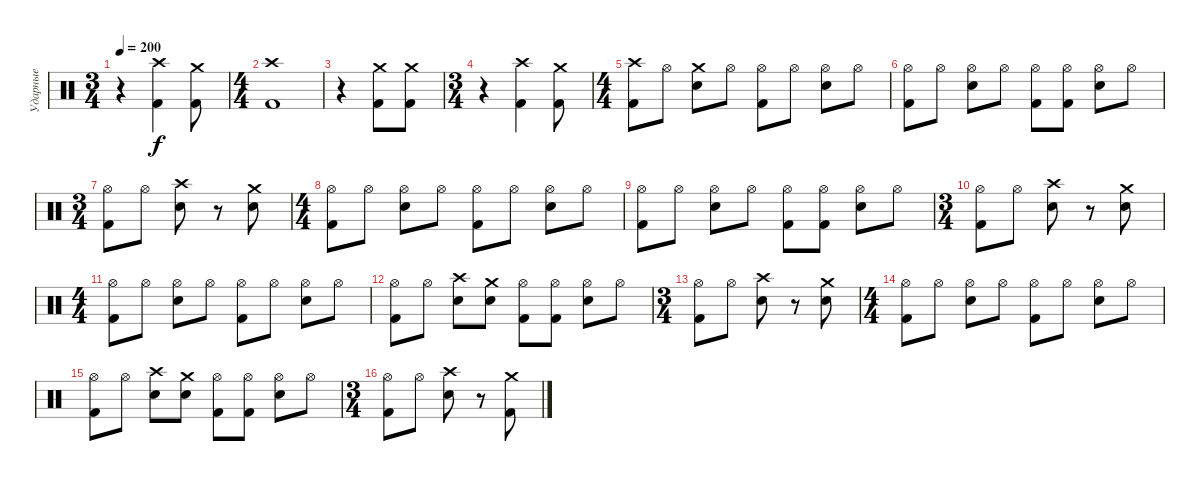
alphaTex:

\track ("Ударные" "Ударные") {instrument percussion}
\staff {score}
\articulation defaults
\ts (3 4)
\tempo 200
\clef neutral
\ks c
r.4{dy f} ("Crash high (hit)" "Kick (hit) 2").4 ("Crash medium (hit)" "Kick (hit) 2").8 |
\ts (4 4)
("Crash high (hit)" "Kick (hit) 2").1 |
r.4 ("Crash medium (hit)" "Kick (hit) 2").8 ("Crash medium (hit)" "Kick (hit) 2").8 |
\ts (3 4)
r.4 ("Crash high (hit)" "Kick (hit) 2").4 ("Crash medium (hit)" "Kick (hit) 2").8 |
\ts (4 4)
("Crash high (hit)" "Kick (hit) 2").8 "Hi-Hat (open)".8 ("Crash medium (hit)" "Electric Snare (hit)").8 "Hi-Hat (open)".8 ("Hi-Hat (open)" "Kick (hit) 2").8 "Hi-Hat (open)".8 ("Hi-Hat (open)" "Electric Snare (hit)").8 "Hi-Hat (open)".8 |
("Hi-Hat (open)" "Kick (hit) 2").8 "Hi-Hat (open)".8 ("Hi-Hat (open)" "Electric Snare (hit)").8 "Hi-Hat (open)".8 ("Hi-Hat (open)" "Kick (hit) 2").8 ("Hi-Hat (open)" "Kick (hit) 2").8 ("Hi-Hat (open)" "Electric Snare (hit)").8 "Hi-Hat (open)".8 |
\ts (3 4)
("Hi-Hat (open)" "Kick (hit) 2").8 "Hi-Hat (open)".8 ("Crash high (hit)" "Electric Snare (hit)").8 r.8 ("Crash medium (hit)" "Electric Snare (hit)").8 |
\ts (4 4)
("Hi-Hat (open)" "Kick (hit) 2").8 "Hi-Hat (open)".8 ("Hi-Hat (open)" "Electric Snare (hit)").8 "Hi-Hat (open)".8 ("Hi-Hat (open)" "Kick (hit) 2").8 "Hi-Hat (open)".8 ("Hi-Hat (open)" "Electric Snare (hit)").8 "Hi-Hat (open)".8 |
("Hi-Hat (open)" "Kick (hit) 2").8 "Hi-Hat (open)".8 ("Hi-Hat (open)" "Electric Snare (hit)").8 "Hi-Hat (open)".8 ("Hi-Hat (open)" "Kick (hit) 2").8 ("Hi-Hat (open)" "Kick (hit) 2").8 ("Hi-Hat (open)" "Electric Snare (hit)").8 "Hi-Hat (open)".8 |
\ts (3 4)
("Hi-Hat (open)" "Kick (hit) 2").8 "Hi-Hat (open)".8 ("Crash high (hit)" "Electric Snare (hit)").8 r.8 ("Crash medium (hit)" "Electric Snare (hit)").8 |
\ts (4 4)
("Hi-Hat (open)" "Kick (hit) 2").8 "Hi-Hat (open)".8 ("Hi-Hat (open)" "Electric Snare (hit)").8 "Hi-Hat (open)".8 ("Hi-Hat (open)" "Kick (hit) 2").8 "Hi-Hat (open)".8 ("Hi-Hat (open)" "Electric Snare (hit)").8 "Hi-Hat (open)".8 |
("Hi-Hat (open)" "Kick (hit) 2").8 "Hi-Hat (open)".8 ("Crash high (hit)" "Electric Snare (hit)").8 ("Crash medium (hit)" "Electric Snare (hit)").8 ("Hi-Hat (open)" "Kick (hit) 2").8 ("Hi-Hat (open)" "Kick (hit) 2").8 ("Hi-Hat (open)" "Electric Snare (hit)").8 "Hi-Hat (open)".8 |
\ts (3 4)
("Hi-Hat (open)" "Kick (hit) 2").8 "Hi-Hat (open)".8 ("Crash high (hit)" "Electric Snare (hit)").8 r.8 ("Crash medium (hit)" "Electric Snare (hit)").8 |
\ts (4 4)
("Hi-Hat (open)" "Kick (hit) 2").8 "Hi-Hat (open)".8 ("Hi-Hat (open)" "Electric Snare (hit)").8 "Hi-Hat (open)".8 ("Hi-Hat (open)" "Kick (hit) 2").8 "Hi-Hat (open)".8 ("Hi-Hat (open)" "Electric Snare (hit)").8 "Hi-Hat (open)".8 |
("Hi-Hat (open)" "Kick (hit) 2").8 "Hi-Hat (open)".8 ("Crash high (hit)" "Electric Snare (hit)").8 ("Crash medium (hit)" "Electric Snare (hit)").8 ("Hi-Hat (open)" "Kick (hit) 2").8 ("Hi-Hat (open)" "Kick (hit) 2").8 ("Hi-Hat (open)" "Electric Snare (hit)").8 "Hi-Hat (open)".8 |
\ts (3 4)
("Hi-Hat (open)" "Kick (hit) 2").8 "Hi-Hat (open)".8 ("Crash high (hit)" "Electric Snare (hit)").8 r.8 ("Crash medium (hit)" "Kick (hit) 2").8
